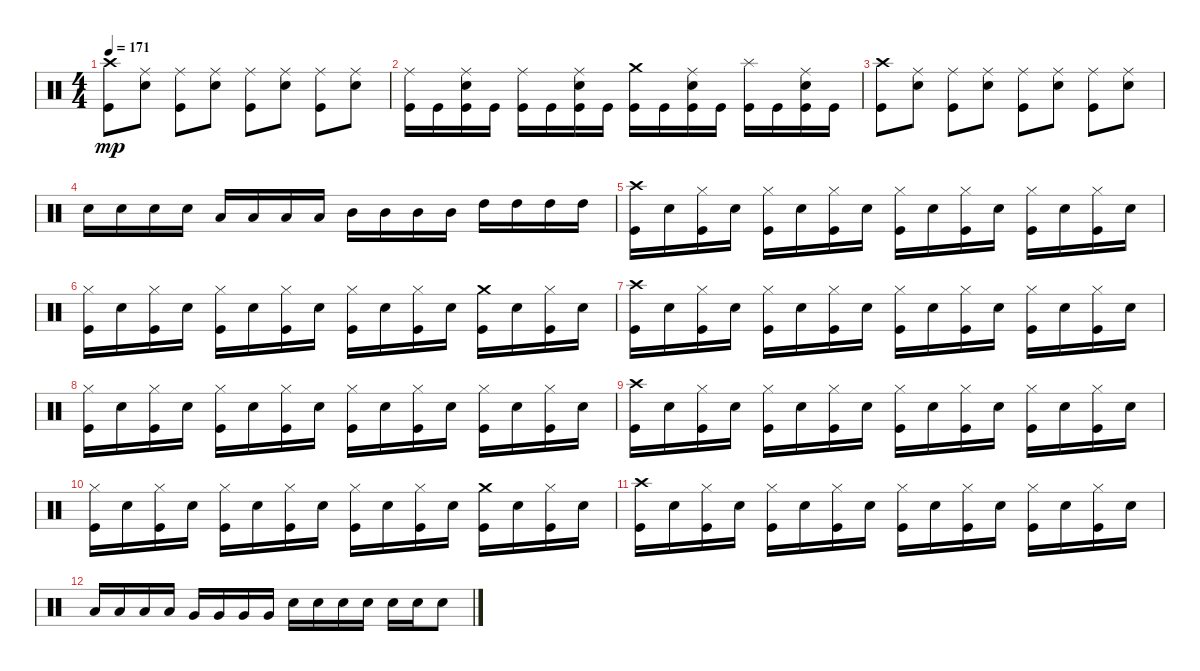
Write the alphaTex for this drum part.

\track "" {instrument percussion}
\staff {score}
\articulation defaults
\ts (4 4)
\tempo 171
\clef neutral
\ks c
("Kick (hit)" "Crash high (hit)").8{dy mp} ("Snare (hit) 2" "Ride (middle)").8 ("Kick (hit)" "Ride (middle)").8 ("Snare (hit) 2" "Ride (middle)").8 ("Kick (hit)" "Ride (middle)").8 ("Snare (hit) 2" "Ride (middle)").8 ("Ride (middle)" "Kick (hit)").8 ("Snare (hit) 2" "Ride (middle)").8 |
("Kick (hit)" "Ride (middle)").16 "Kick (hit)".16 ("Snare (hit) 2" "Ride (middle)" "Kick (hit)").16 "Kick (hit)".16 ("Kick (hit)" "Ride (middle)").16 "Kick (hit)".16 ("Snare (hit) 2" "Ride (middle)" "Kick (hit)").16 "Kick (hit)".16 ("Kick (hit)" "Crash medium (hit)").16 "Kick (hit)".16 ("Snare (hit) 2" "Ride (middle)" "Kick (hit)").16 "Kick (hit)".16 ("Kick (hit)" "Splash (hit)").16 "Kick (hit)".16 ("Snare (hit) 2" "Ride (middle)" "Kick (hit)").16 "Kick (hit)".16 |
("Kick (hit)" "Crash high (hit)").8 ("Snare (hit) 2" "Ride (middle)").8 ("Kick (hit)" "Ride (middle)").8 ("Snare (hit) 2" "Ride (middle)").8 ("Kick (hit)" "Ride (middle)").8 ("Snare (hit) 2" "Ride (middle)").8 ("Ride (middle)" "Kick (hit)").8 ("Snare (hit) 2" "Ride (middle)").8 |
"Snare (hit) 2".16 "Snare (hit) 2".16 "Snare (hit) 2".16 "Snare (hit) 2".16 "Low Tom (hit)".16 "Low Tom (hit)".16 "Low Tom (hit)".16 "Low Tom (hit)".16 "Mid Tom (hit)".16 "Mid Tom (hit)".16 "Mid Tom (hit)".16 "Mid Tom (hit)".16 "High Tom (hit)".16 "High Tom (hit)".16 "High Tom (hit)".16 "High Tom (hit)".16 |
("Kick (hit)" "Crash high (hit)").16 "Snare (hit) 2".16 ("Kick (hit)" "Hi-Hat (closed)").16 "Snare (hit) 2".16 ("Kick (hit)" "Hi-Hat (closed)").16 "Snare (hit) 2".16 ("Kick (hit)" "Hi-Hat (closed)").16 "Snare (hit) 2".16 ("Kick (hit)" "Hi-Hat (closed)").16 "Snare (hit) 2".16 ("Kick (hit)" "Hi-Hat (closed)").16 "Snare (hit) 2".16 ("Kick (hit)" "Hi-Hat (closed)").16 "Snare (hit) 2".16 ("Kick (hit)" "Hi-Hat (closed)").16 "Snare (hit) 2".16 |
("Hi-Hat (closed)" "Kick (hit)").16 "Snare (hit) 2".16 ("Hi-Hat (closed)" "Kick (hit)").16 "Snare (hit) 2".16 ("Hi-Hat (closed)" "Kick (hit)").16 "Snare (hit) 2".16 ("Hi-Hat (closed)" "Kick (hit)").16 "Snare (hit) 2".16 ("Hi-Hat (closed)" "Kick (hit)").16 "Snare (hit) 2".16 ("Hi-Hat (closed)" "Kick (hit)").16 "Snare (hit) 2".16 ("Kick (hit)" "Crash medium (hit)").16 "Snare (hit) 2".16 ("Hi-Hat (closed)" "Kick (hit)").16 "Snare (hit) 2".16 |
("Kick (hit)" "Crash high (hit)").16 "Snare (hit) 2".16 ("Kick (hit)" "Hi-Hat (closed)").16 "Snare (hit) 2".16 ("Kick (hit)" "Hi-Hat (closed)").16 "Snare (hit) 2".16 ("Kick (hit)" "Hi-Hat (closed)").16 "Snare (hit) 2".16 ("Kick (hit)" "Hi-Hat (closed)").16 "Snare (hit) 2".16 ("Kick (hit)" "Hi-Hat (closed)").16 "Snare (hit) 2".16 ("Kick (hit)" "Hi-Hat (closed)").16 "Snare (hit) 2".16 ("Kick (hit)" "Hi-Hat (closed)").16 "Snare (hit) 2".16 |
("Hi-Hat (closed)" "Kick (hit)").16 "Snare (hit) 2".16 ("Hi-Hat (closed)" "Kick (hit)").16 "Snare (hit) 2".16 ("Hi-Hat (closed)" "Kick (hit)").16 "Snare (hit) 2".16 ("Hi-Hat (closed)" "Kick (hit)").16 "Snare (hit) 2".16 ("Hi-Hat (closed)" "Kick (hit)").16 "Snare (hit) 2".16 ("Hi-Hat (closed)" "Kick (hit)").16 "Snare (hit) 2".16 ("Hi-Hat (closed)" "Kick (hit)").16 "Snare (hit) 2".16 ("Hi-Hat (closed)" "Kick (hit)").16 "Snare (hit) 2".16 |
("Kick (hit)" "Crash high (hit)").16 "Snare (hit) 2".16 ("Kick (hit)" "Hi-Hat (closed)").16 "Snare (hit) 2".16 ("Kick (hit)" "Hi-Hat (closed)").16 "Snare (hit) 2".16 ("Kick (hit)" "Hi-Hat (closed)").16 "Snare (hit) 2".16 ("Kick (hit)" "Hi-Hat (closed)").16 "Snare (hit) 2".16 ("Kick (hit)" "Hi-Hat (closed)").16 "Snare (hit) 2".16 ("Kick (hit)" "Hi-Hat (closed)").16 "Snare (hit) 2".16 ("Kick (hit)" "Hi-Hat (closed)").16 "Snare (hit) 2".16 |
("Hi-Hat (closed)" "Kick (hit)").16 "Snare (hit) 2".16 ("Hi-Hat (closed)" "Kick (hit)").16 "Snare (hit) 2".16 ("Hi-Hat (closed)" "Kick (hit)").16 "Snare (hit) 2".16 ("Hi-Hat (closed)" "Kick (hit)").16 "Snare (hit) 2".16 ("Hi-Hat (closed)" "Kick (hit)").16 "Snare (hit) 2".16 ("Hi-Hat (closed)" "Kick (hit)").16 "Snare (hit) 2".16 ("Kick (hit)" "Crash medium (hit)").16 "Snare (hit) 2".16 ("Hi-Hat (closed)" "Kick (hit)").16 "Snare (hit) 2".16 |
("Kick (hit)" "Crash high (hit)").16 "Snare (hit) 2".16 ("Kick (hit)" "Hi-Hat (closed)").16 "Snare (hit) 2".16 ("Kick (hit)" "Hi-Hat (closed)").16 "Snare (hit) 2".16 ("Kick (hit)" "Hi-Hat (closed)").16 "Snare (hit) 2".16 ("Kick (hit)" "Hi-Hat (closed)").16 "Snare (hit) 2".16 ("Kick (hit)" "Hi-Hat (closed)").16 "Snare (hit) 2".16 ("Kick (hit)" "Hi-Hat (closed)").16 "Snare (hit) 2".16 ("Kick (hit)" "Hi-Hat (closed)").16 "Snare (hit) 2".16 |
"Low Tom (hit)".16 "Low Tom (hit)".16 "Low Tom (hit)".16 "Low Tom (hit)".16 "Very Low Tom (hit)".16 "Very Low Tom (hit)".16 "Very Low Tom (hit)".16 "Very Low Tom (hit)".16 "Snare (hit) 2".16 "Snare (hit) 2".16 "Snare (hit) 2".16 "Snare (hit) 2".16 "Snare (hit) 2".16 "Snare (hit) 2".16 "Snare (hit) 2".8
